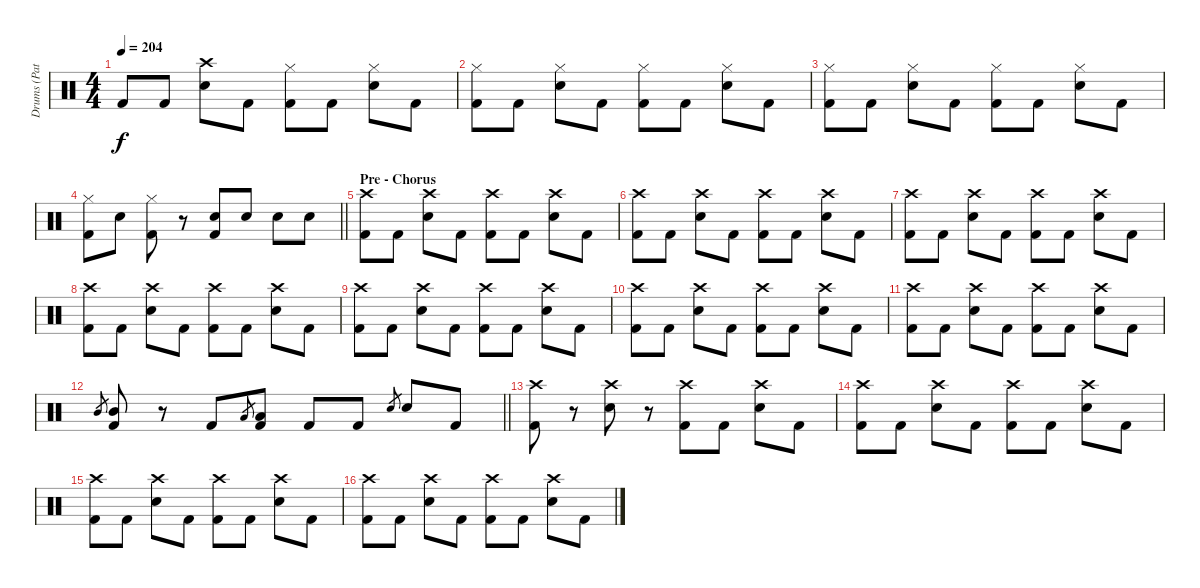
\track ("Drums (Patrick Johansson)" "Drums (Pat") {instrument percussion}
\staff {score}
\articulation defaults
\ts (4 4)
\tempo 204
\clef neutral
\ks c "Kick (hit) 2".8{dy f} "Kick (hit) 2".8
("Crash high (hit)" "Electric Snare (hit)").8 "Kick (hit) 2".8 ("Hi-Hat (closed)" "Kick (hit) 2").8 "Kick (hit) 2".8 ("Electric Snare (hit)" "Hi-Hat (closed)").8 "Kick (hit) 2".8 |
("Hi-Hat (closed)" "Kick (hit) 2").8 "Kick (hit) 2".8 ("Electric Snare (hit)" "Hi-Hat (closed)").8 "Kick (hit) 2".8 ("Hi-Hat (closed)" "Kick (hit) 2").8 "Kick (hit) 2".8 ("Electric Snare (hit)" "Hi-Hat (closed)").8 "Kick (hit) 2".8 |
("Hi-Hat (closed)" "Kick (hit) 2").8 "Kick (hit) 2".8 ("Electric Snare (hit)" "Hi-Hat (closed)").8 "Kick (hit) 2".8 ("Hi-Hat (closed)" "Kick (hit) 2").8 "Kick (hit) 2".8 ("Electric Snare (hit)" "Hi-Hat (closed)").8 "Kick (hit) 2".8 |
\barLineRight lightlight
("Hi-Hat (closed)" "Kick (hit) 2").8 "Electric Snare (hit)".8 ("Hi-Hat (closed)" "Kick (hit) 2").8 r.8 ("Electric Snare (hit)" "Kick (hit) 2").8 "Electric Snare (hit)".8 "Electric Snare (hit)".8 "Electric Snare (hit)".8 |
\section ("" "Pre - Chorus")
("Crash high (hit)" "Kick (hit) 2").8 "Kick (hit) 2".8 ("Crash high (hit)" "Electric Snare (hit)").8 "Kick (hit) 2".8 ("Crash high (hit)" "Kick (hit) 2").8 "Kick (hit) 2".8 ("Crash high (hit)" "Electric Snare (hit)").8 "Kick (hit) 2".8 |
("Crash high (hit)" "Kick (hit) 2").8 "Kick (hit) 2".8 ("Crash high (hit)" "Electric Snare (hit)").8 "Kick (hit) 2".8 ("Crash high (hit)" "Kick (hit) 2").8 "Kick (hit) 2".8 ("Crash high (hit)" "Electric Snare (hit)").8 "Kick (hit) 2".8 |
("Crash high (hit)" "Kick (hit) 2").8 "Kick (hit) 2".8 ("Crash high (hit)" "Electric Snare (hit)").8 "Kick (hit) 2".8 ("Crash high (hit)" "Kick (hit) 2").8 "Kick (hit) 2".8 ("Crash high (hit)" "Electric Snare (hit)").8 "Kick (hit) 2".8 |
("Crash high (hit)" "Kick (hit) 2").8 "Kick (hit) 2".8 ("Crash high (hit)" "Electric Snare (hit)").8 "Kick (hit) 2".8 ("Crash high (hit)" "Kick (hit) 2").8 "Kick (hit) 2".8 ("Crash high (hit)" "Electric Snare (hit)").8 "Kick (hit) 2".8 |
("Crash high (hit)" "Kick (hit) 2").8 "Kick (hit) 2".8 ("Crash high (hit)" "Electric Snare (hit)").8 "Kick (hit) 2".8 ("Crash high (hit)" "Kick (hit) 2").8 "Kick (hit) 2".8 ("Crash high (hit)" "Electric Snare (hit)").8 "Kick (hit) 2".8 |
("Crash high (hit)" "Kick (hit) 2").8 "Kick (hit) 2".8 ("Crash high (hit)" "Electric Snare (hit)").8 "Kick (hit) 2".8 ("Crash high (hit)" "Kick (hit) 2").8 "Kick (hit) 2".8 ("Crash high (hit)" "Electric Snare (hit)").8 "Kick (hit) 2".8 |
("Crash high (hit)" "Kick (hit) 2").8 "Kick (hit) 2".8 ("Crash high (hit)" "Electric Snare (hit)").8 "Kick (hit) 2".8 ("Crash high (hit)" "Kick (hit) 2").8 "Kick (hit) 2".8 ("Crash high (hit)" "Electric Snare (hit)").8 "Kick (hit) 2".8 |
\barLineRight lightlight "Mid Tom (hit)".8{gr}
("Mid Tom (hit)" "Kick (hit) 2").8 r.8 "Kick (hit) 2".8 "Low Tom (hit)".8{gr} ("Low Tom (hit)" "Kick (hit) 2").8 "Kick (hit) 2".8 "Kick (hit) 2".8 "Electric Snare (hit)".8{gr} "Electric Snare (hit)".8 "Kick (hit) 2".8 |
\section ("" "")
("Crash high (hit)" "Kick (hit) 2").8 r.8 ("Crash high (hit)" "Electric Snare (hit)").8 r.8 ("Crash high (hit)" "Kick (hit) 2").8 "Kick (hit) 2".8 ("Crash high (hit)" "Electric Snare (hit)").8 "Kick (hit) 2".8 |
("Crash high (hit)" "Kick (hit) 2").8 "Kick (hit) 2".8 ("Crash high (hit)" "Electric Snare (hit)").8 "Kick (hit) 2".8 ("Crash high (hit)" "Kick (hit) 2").8 "Kick (hit) 2".8 ("Crash high (hit)" "Electric Snare (hit)").8 "Kick (hit) 2".8 |
("Crash high (hit)" "Kick (hit) 2").8 "Kick (hit) 2".8 ("Crash high (hit)" "Electric Snare (hit)").8 "Kick (hit) 2".8 ("Crash high (hit)" "Kick (hit) 2").8 "Kick (hit) 2".8 ("Crash high (hit)" "Electric Snare (hit)").8 "Kick (hit) 2".8 |
("Crash high (hit)" "Kick (hit) 2").8 "Kick (hit) 2".8 ("Crash high (hit)" "Electric Snare (hit)").8 "Kick (hit) 2".8 ("Crash high (hit)" "Kick (hit) 2").8 "Kick (hit) 2".8 ("Crash high (hit)" "Electric Snare (hit)").8 "Kick (hit) 2".8
